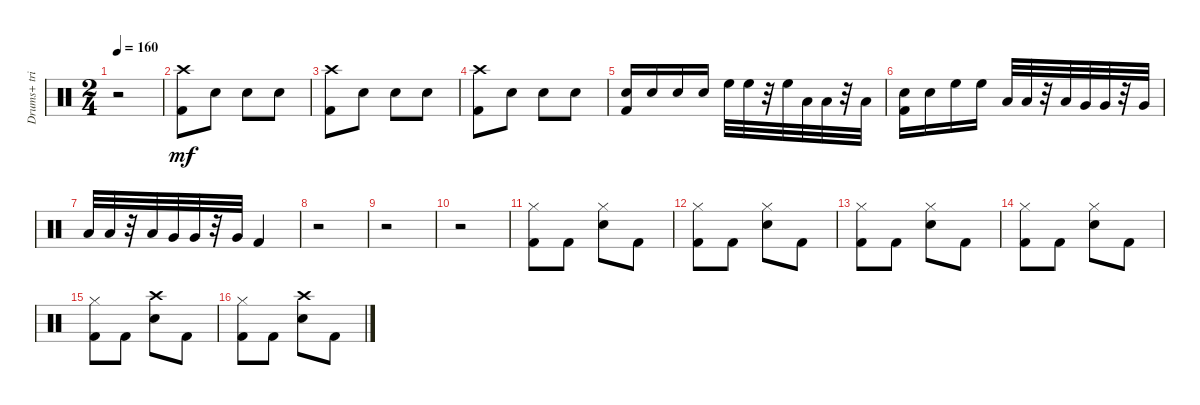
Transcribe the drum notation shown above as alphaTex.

\track ("Drums+ triangle" "Drums+ tri") {instrument percussion}
\staff {score}
\articulation defaults
\ts (2 4)
\tempo 160
\clef neutral
\ks c
r.2{dy mf} |
("Kick (hit) 2" "Crash high (hit)").8 "Snare (hit) 2".8 "Snare (hit) 2".8 "Snare (hit) 2".8 |
("Kick (hit) 2" "Crash high (hit)").8 "Snare (hit) 2".8 "Snare (hit) 2".8 "Snare (hit) 2".8 |
("Kick (hit) 2" "Crash high (hit)").8 "Snare (hit) 2".8 "Snare (hit) 2".8 "Snare (hit) 2".8 |
("Snare (hit) 2" "Kick (hit) 2").16 "Snare (hit) 2".16 "Snare (hit) 2".16 "Snare (hit) 2".16 "High Floor Tom (hit)".32 "High Floor Tom (hit)".32 r.32 "High Floor Tom (hit)".32 "Low Tom (hit)".32 "Low Tom (hit)".32 r.32 "Low Tom (hit)".32 |
("Snare (hit) 2" "Kick (hit) 2").16 "Snare (hit) 2".16 "High Floor Tom (hit)".16 "High Floor Tom (hit)".16 "Low Tom (hit)".32 "Low Tom (hit)".32 r.32 "Low Tom (hit)".32 "Very Low Tom (hit)".32 "Very Low Tom (hit)".32 r.32 "Very Low Tom (hit)".32 |
"Low Tom (hit)".32 "Low Tom (hit)".32 r.32 "Low Tom (hit)".32 "Very Low Tom (hit)".32 "Very Low Tom (hit)".32 r.32 "Very Low Tom (hit)".32 "Kick (hit) 2".4 |
r.2 |
r.2 |
r.2 |
("Kick (hit) 2" "Hi-Hat (closed)").8 "Kick (hit) 2".8 ("Snare (hit) 2" "Hi-Hat (closed)").8 "Kick (hit) 2".8 |
("Kick (hit) 2" "Hi-Hat (closed)").8 "Kick (hit) 2".8 ("Snare (hit) 2" "Hi-Hat (closed)").8 "Kick (hit) 2".8 |
("Kick (hit) 2" "Hi-Hat (closed)").8 "Kick (hit) 2".8 ("Snare (hit) 2" "Hi-Hat (closed)").8 "Kick (hit) 2".8 |
("Kick (hit) 2" "Hi-Hat (closed)").8 "Kick (hit) 2".8 ("Snare (hit) 2" "Hi-Hat (closed)").8 "Kick (hit) 2".8 |
("Kick (hit) 2" "Hi-Hat (closed)").8 "Kick (hit) 2".8 ("Snare (hit) 2" "Crash high (hit)").8 "Kick (hit) 2".8 |
("Kick (hit) 2" "Hi-Hat (closed)").8 "Kick (hit) 2".8 ("Snare (hit) 2" "Crash high (hit)").8 "Kick (hit) 2".8
